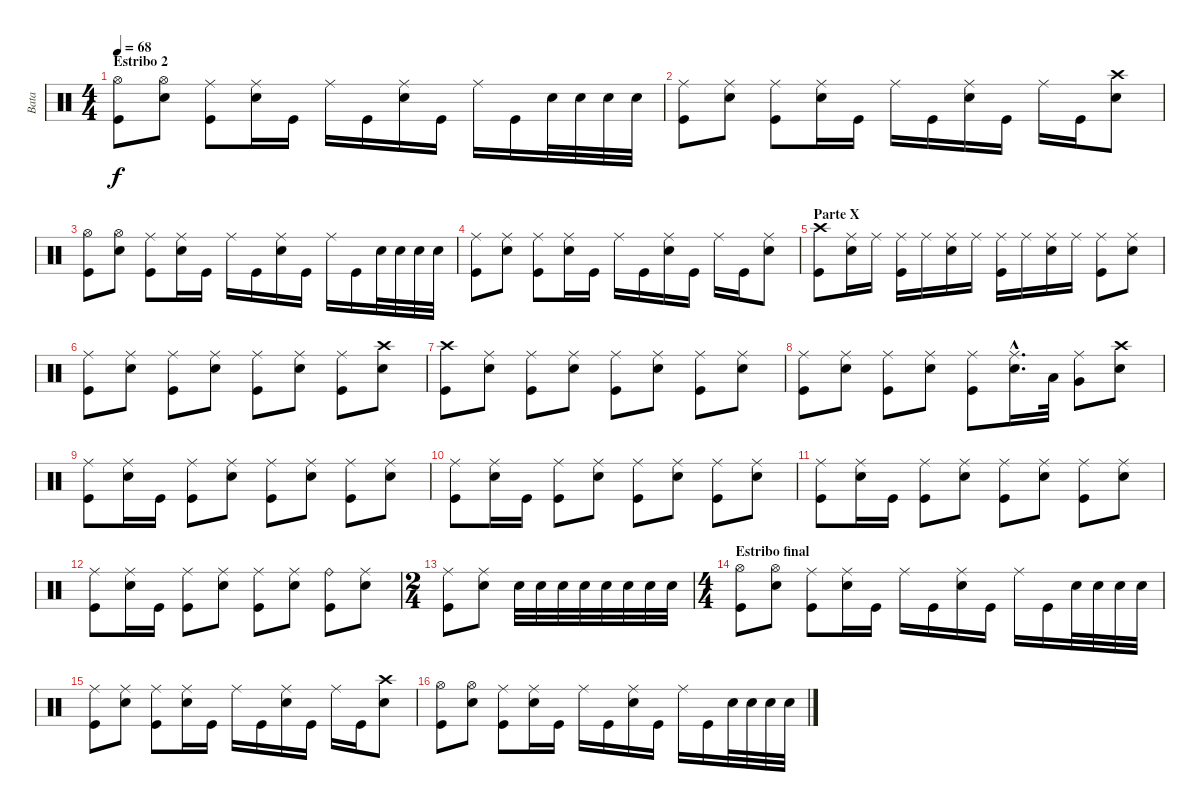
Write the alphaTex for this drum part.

\track ("Bata" "Bata") {instrument percussion}
\staff {score}
\articulation defaults
\ts (4 4)
\section ("" "Estribo 2")
\tempo 68
\clef neutral
\ks c
("Hi-Hat (open)" "Kick (hit)").8{dy f} ("Hi-Hat (open)" "Electric Snare (hit)").8 ("Ride (middle)" "Kick (hit)").8 ("Ride (middle)" "Electric Snare (hit)").16 "Kick (hit)".16 "Ride (middle)".16 "Kick (hit)".16 ("Ride (middle)" "Electric Snare (hit)").16 "Kick (hit)".16 "Ride (middle)".16 "Kick (hit)".16 "Electric Snare (hit)".32 "Electric Snare (hit)".32 "Electric Snare (hit)".32 "Electric Snare (hit)".32 |
("Ride (middle)" "Kick (hit)").8 ("Ride (middle)" "Electric Snare (hit)").8 ("Ride (middle)" "Kick (hit)").8 ("Ride (middle)" "Electric Snare (hit)").16 "Kick (hit)".16 "Ride (middle)".16 "Kick (hit)".16 ("Ride (middle)" "Electric Snare (hit)").16 "Kick (hit)".16 "Ride (middle)".16 "Kick (hit)".16 ("Crash high (hit)" "Electric Snare (hit)").8 |
("Hi-Hat (open)" "Kick (hit)").8 ("Hi-Hat (open)" "Electric Snare (hit)").8 ("Ride (middle)" "Kick (hit)").8 ("Ride (middle)" "Electric Snare (hit)").16 "Kick (hit)".16 "Ride (middle)".16 "Kick (hit)".16 ("Ride (middle)" "Electric Snare (hit)").16 "Kick (hit)".16 "Ride (middle)".16 "Kick (hit)".16 "Electric Snare (hit)".32 "Electric Snare (hit)".32 "Electric Snare (hit)".32 "Electric Snare (hit)".32 |
("Ride (middle)" "Kick (hit)").8 ("Ride (middle)" "Electric Snare (hit)").8 ("Ride (middle)" "Kick (hit)").8 ("Ride (middle)" "Electric Snare (hit)").16 "Kick (hit)".16 "Ride (middle)".16 "Kick (hit)".16 ("Ride (middle)" "Electric Snare (hit)").16 "Kick (hit)".16 "Ride (middle)".16 "Kick (hit)".16 ("Ride (middle)" "Electric Snare (hit)").8 |
\section ("" "Parte X")
("Crash high (hit)" "Kick (hit)").8 ("Ride (middle)" "Electric Snare (hit)").16 "Ride (middle)".16 ("Ride (middle)" "Kick (hit)").16 "Ride (middle)".16 ("Ride (middle)" "Electric Snare (hit)").16 "Ride (middle)".16 ("Ride (middle)" "Kick (hit)").16 "Ride (middle)".16 ("Ride (middle)" "Electric Snare (hit)").16 "Ride (middle)".16 ("Ride (middle)" "Kick (hit)").8 ("Ride (middle)" "Electric Snare (hit)").8 |
("Ride (middle)" "Kick (hit)").8 ("Ride (middle)" "Electric Snare (hit)").8 ("Ride (middle)" "Kick (hit)").8 ("Ride (middle)" "Electric Snare (hit)").8 ("Ride (middle)" "Kick (hit)").8 ("Ride (middle)" "Electric Snare (hit)").8 ("Ride (middle)" "Kick (hit)").8 ("Crash high (hit)" "Electric Snare (hit)").8 |
("Crash high (hit)" "Kick (hit)").8 ("Ride (middle)" "Electric Snare (hit)").8 ("Ride (middle)" "Kick (hit)").8 ("Ride (middle)" "Electric Snare (hit)").8 ("Ride (middle)" "Kick (hit)").8 ("Ride (middle)" "Electric Snare (hit)").8 ("Ride (middle)" "Kick (hit)").8 ("Ride (middle)" "Electric Snare (hit)").8 |
("Ride (middle)" "Kick (hit)").8 ("Ride (middle)" "Electric Snare (hit)").8 ("Ride (middle)" "Kick (hit)").8 ("Ride (middle)" "Electric Snare (hit)").8 ("Ride (middle)" "Kick (hit)").8 ("Ride (middle)"{hac} "Electric Snare (hit)"{hac}).16{d} "Low Tom (hit)".32 ("Ride (middle)" "Very Low Tom (hit)").8 ("Crash high (hit)" "Electric Snare (hit)").8 |
("Ride (middle)" "Kick (hit)").8 ("Ride (middle)" "Snare (hit) 2").16 "Kick (hit)".16 ("Ride (middle)" "Kick (hit)").8 ("Ride (middle)" "Snare (hit) 2").8 ("Ride (middle)" "Kick (hit)").8 ("Ride (middle)" "Snare (hit) 2").8 ("Ride (middle)" "Kick (hit)").8 ("Ride (middle)" "Snare (hit) 2").8 |
("Ride (middle)" "Kick (hit)").8 ("Ride (middle)" "Snare (hit) 2").16 "Kick (hit)".16 ("Ride (middle)" "Kick (hit)").8 ("Ride (middle)" "Snare (hit) 2").8 ("Ride (middle)" "Kick (hit)").8 ("Ride (middle)" "Snare (hit) 2").8 ("Ride (middle)" "Kick (hit)").8 ("Ride (middle)" "Snare (hit) 2").8 |
("Ride (middle)" "Kick (hit)").8 ("Ride (middle)" "Snare (hit) 2").16 "Kick (hit)".16 ("Ride (middle)" "Kick (hit)").8 ("Ride (middle)" "Snare (hit) 2").8 ("Ride (middle)" "Kick (hit)").8 ("Ride (middle)" "Snare (hit) 2").8 ("Ride (middle)" "Kick (hit)").8 ("Ride (middle)" "Snare (hit) 2").8 |
("Ride (middle)" "Kick (hit)").8 ("Ride (middle)" "Snare (hit) 2").16 "Kick (hit)".16 ("Ride (middle)" "Kick (hit)").8 ("Ride (middle)" "Snare (hit) 2").8 ("Ride (middle)" "Kick (hit)").8 ("Ride (middle)" "Snare (hit) 2").8 ("Ride (bell)" "Kick (hit)").8 ("Ride (middle)" "Snare (hit) 2").8 |
\ts (2 4)
("Ride (middle)" "Kick (hit)").8 ("Ride (middle)" "Snare (hit) 2").8 "Snare (hit) 2".32 "Snare (hit) 2".32 "Snare (hit) 2".32 "Snare (hit) 2".32 "Snare (hit) 2".32 "Snare (hit) 2".32 "Snare (hit) 2".32 "Snare (hit) 2".32 |
\ts (4 4)
\section ("" "Estribo final")
("Hi-Hat (open)" "Kick (hit)").8 ("Hi-Hat (open)" "Electric Snare (hit)").8 ("Ride (middle)" "Kick (hit)").8 ("Ride (middle)" "Electric Snare (hit)").16 "Kick (hit)".16 "Ride (middle)".16 "Kick (hit)".16 ("Ride (middle)" "Electric Snare (hit)").16 "Kick (hit)".16 "Ride (middle)".16 "Kick (hit)".16 "Electric Snare (hit)".32 "Electric Snare (hit)".32 "Electric Snare (hit)".32 "Electric Snare (hit)".32 |
("Ride (middle)" "Kick (hit)").8 ("Ride (middle)" "Electric Snare (hit)").8 ("Ride (middle)" "Kick (hit)").8 ("Ride (middle)" "Electric Snare (hit)").16 "Kick (hit)".16 "Ride (middle)".16 "Kick (hit)".16 ("Ride (middle)" "Electric Snare (hit)").16 "Kick (hit)".16 "Ride (middle)".16 "Kick (hit)".16 ("Crash high (hit)" "Electric Snare (hit)").8 |
("Hi-Hat (open)" "Kick (hit)").8 ("Hi-Hat (open)" "Electric Snare (hit)").8 ("Ride (middle)" "Kick (hit)").8 ("Ride (middle)" "Electric Snare (hit)").16 "Kick (hit)".16 "Ride (middle)".16 "Kick (hit)".16 ("Ride (middle)" "Electric Snare (hit)").16 "Kick (hit)".16 "Ride (middle)".16 "Kick (hit)".16 "Electric Snare (hit)".32 "Electric Snare (hit)".32 "Electric Snare (hit)".32 "Electric Snare (hit)".32
